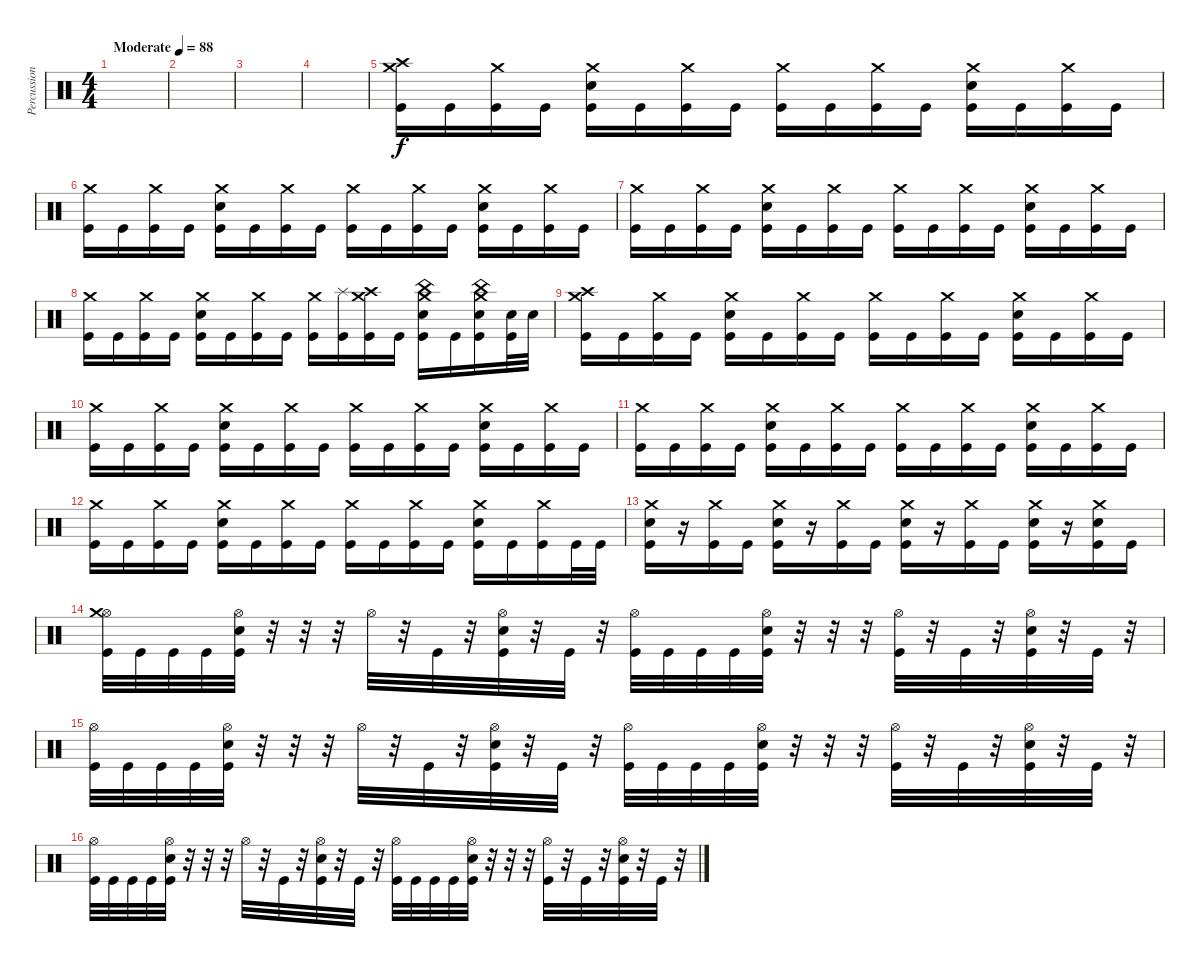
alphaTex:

\track ("Percussion" "Percussion") {instrument percussion}
\staff {score}
\articulation defaults
\ts (4 4)
\tempo (88 "Moderate")
\clef neutral
\ks c
|
|
|
|
("Crash medium (hit)" "Crash high (hit)" "Kick (hit)").16 "Kick (hit)".16 ("Crash medium (hit)" "Kick (hit)").16 "Kick (hit)".16 ("Crash medium (hit)" "Electric Snare (hit)" "Kick (hit)").16 "Kick (hit)".16 ("Crash medium (hit)" "Kick (hit)").16 "Kick (hit)".16 ("Crash medium (hit)" "Kick (hit)").16 "Kick (hit)".16 ("Crash medium (hit)" "Kick (hit)").16 "Kick (hit)".16 ("Crash medium (hit)" "Electric Snare (hit)" "Kick (hit)").16 "Kick (hit)".16 ("Crash medium (hit)" "Kick (hit)").16 "Kick (hit)".16 |
("Crash medium (hit)" "Kick (hit)").16 "Kick (hit)".16 ("Crash medium (hit)" "Kick (hit)").16 "Kick (hit)".16 ("Crash medium (hit)" "Electric Snare (hit)" "Kick (hit)").16 "Kick (hit)".16 ("Crash medium (hit)" "Kick (hit)").16 "Kick (hit)".16 ("Crash medium (hit)" "Kick (hit)").16 "Kick (hit)".16 ("Crash medium (hit)" "Kick (hit)").16 "Kick (hit)".16 ("Crash medium (hit)" "Electric Snare (hit)" "Kick (hit)").16 "Kick (hit)".16 ("Crash medium (hit)" "Kick (hit)").16 "Kick (hit)".16 |
("Crash medium (hit)" "Kick (hit)").16 "Kick (hit)".16 ("Crash medium (hit)" "Kick (hit)").16 "Kick (hit)".16 ("Crash medium (hit)" "Electric Snare (hit)" "Kick (hit)").16 "Kick (hit)".16 ("Crash medium (hit)" "Kick (hit)").16 "Kick (hit)".16 ("Crash medium (hit)" "Kick (hit)").16 "Kick (hit)".16 ("Crash medium (hit)" "Kick (hit)").16 "Kick (hit)".16 ("Crash medium (hit)" "Electric Snare (hit)" "Kick (hit)").16 "Kick (hit)".16 ("Crash medium (hit)" "Kick (hit)").16 "Kick (hit)".16 |
("Crash medium (hit)" "Kick (hit)").16 "Kick (hit)".16 ("Crash medium (hit)" "Kick (hit)").16 "Kick (hit)".16 ("Crash medium (hit)" "Electric Snare (hit)" "Kick (hit)").16 "Kick (hit)".16 ("Crash medium (hit)" "Kick (hit)").16 "Kick (hit)".16 ("Crash medium (hit)" "Kick (hit)").16 ("Splash (hit)" "Kick (hit)").16 ("Crash medium (hit)" "Crash high (hit)" "Kick (hit)").16 "Kick (hit)".16 ("Crash medium (hit)" "China (hit)" "Electric Snare (hit)" "Kick (hit)").16 "Kick (hit)".16 ("Crash medium (hit)" "China (hit)" "Electric Snare (hit)" "Kick (hit)").16 ("Electric Snare (hit)" "Kick (hit)").32 "Electric Snare (hit)".32 |
("Crash medium (hit)" "Crash high (hit)" "Kick (hit)").16 "Kick (hit)".16 ("Crash medium (hit)" "Kick (hit)").16 "Kick (hit)".16 ("Crash medium (hit)" "Electric Snare (hit)" "Kick (hit)").16 "Kick (hit)".16 ("Crash medium (hit)" "Kick (hit)").16 "Kick (hit)".16 ("Crash medium (hit)" "Kick (hit)").16 "Kick (hit)".16 ("Crash medium (hit)" "Kick (hit)").16 "Kick (hit)".16 ("Crash medium (hit)" "Electric Snare (hit)" "Kick (hit)").16 "Kick (hit)".16 ("Crash medium (hit)" "Kick (hit)").16 "Kick (hit)".16 |
("Crash medium (hit)" "Kick (hit)").16 "Kick (hit)".16 ("Crash medium (hit)" "Kick (hit)").16 "Kick (hit)".16 ("Crash medium (hit)" "Electric Snare (hit)" "Kick (hit)").16 "Kick (hit)".16 ("Crash medium (hit)" "Kick (hit)").16 "Kick (hit)".16 ("Crash medium (hit)" "Kick (hit)").16 "Kick (hit)".16 ("Crash medium (hit)" "Kick (hit)").16 "Kick (hit)".16 ("Crash medium (hit)" "Electric Snare (hit)" "Kick (hit)").16 "Kick (hit)".16 ("Crash medium (hit)" "Kick (hit)").16 "Kick (hit)".16 |
("Crash medium (hit)" "Kick (hit)").16 "Kick (hit)".16 ("Crash medium (hit)" "Kick (hit)").16 "Kick (hit)".16 ("Crash medium (hit)" "Electric Snare (hit)" "Kick (hit)").16 "Kick (hit)".16 ("Crash medium (hit)" "Kick (hit)").16 "Kick (hit)".16 ("Crash medium (hit)" "Kick (hit)").16 "Kick (hit)".16 ("Crash medium (hit)" "Kick (hit)").16 "Kick (hit)".16 ("Crash medium (hit)" "Electric Snare (hit)" "Kick (hit)").16 "Kick (hit)".16 ("Crash medium (hit)" "Kick (hit)").16 "Kick (hit)".16 |
("Crash medium (hit)" "Kick (hit)").16 "Kick (hit)".16 ("Crash medium (hit)" "Kick (hit)").16 "Kick (hit)".16 ("Crash medium (hit)" "Electric Snare (hit)" "Kick (hit)").16 "Kick (hit)".16 ("Crash medium (hit)" "Kick (hit)").16 "Kick (hit)".16 ("Crash medium (hit)" "Kick (hit)").16 "Kick (hit)".16 ("Crash medium (hit)" "Kick (hit)").16 "Kick (hit)".16 ("Crash medium (hit)" "Electric Snare (hit)" "Kick (hit)").16 "Kick (hit)".16 ("Crash medium (hit)" "Kick (hit)").16 "Kick (hit)".32 "Kick (hit)".32 |
("Crash medium (hit)" "Electric Snare (hit)" "Kick (hit)").16 r.16 ("Crash medium (hit)" "Kick (hit)").16 "Kick (hit)".16 ("Crash medium (hit)" "Electric Snare (hit)" "Kick (hit)").16 r.16 ("Crash medium (hit)" "Kick (hit)").16 "Kick (hit)".16 ("Crash medium (hit)" "Electric Snare (hit)" "Kick (hit)").16 r.16 ("Crash medium (hit)" "Kick (hit)").16 "Kick (hit)".16 ("Crash medium (hit)" "Electric Snare (hit)" "Kick (hit)").16 r.16 ("Crash medium (hit)" "Electric Snare (hit)" "Kick (hit)").16 "Kick (hit)".16 |
("Hi-Hat (open)" "Crash medium (hit)" "Kick (hit)").32 "Kick (hit)".32 "Kick (hit)".32 "Kick (hit)".32 ("Hi-Hat (open)" "Electric Snare (hit)" "Kick (hit)").32 r.32 r.32 r.32 "Hi-Hat (open)".32 r.32 "Kick (hit)".32 r.32 ("Hi-Hat (open)" "Electric Snare (hit)" "Kick (hit)").32 r.32 "Kick (hit)".32 r.32 ("Hi-Hat (open)" "Kick (hit)").32 "Kick (hit)".32 "Kick (hit)".32 "Kick (hit)".32 ("Hi-Hat (open)" "Electric Snare (hit)" "Kick (hit)").32 r.32 r.32 r.32 ("Hi-Hat (open)" "Kick (hit)").32 r.32 "Kick (hit)".32 r.32 ("Hi-Hat (open)" "Electric Snare (hit)" "Kick (hit)").32 r.32 "Kick (hit)".32 r.32 |
("Hi-Hat (open)" "Kick (hit)").32 "Kick (hit)".32 "Kick (hit)".32 "Kick (hit)".32 ("Hi-Hat (open)" "Electric Snare (hit)" "Kick (hit)").32 r.32 r.32 r.32 "Hi-Hat (open)".32 r.32 "Kick (hit)".32 r.32 ("Hi-Hat (open)" "Electric Snare (hit)" "Kick (hit)").32 r.32 "Kick (hit)".32 r.32 ("Hi-Hat (open)" "Kick (hit)").32 "Kick (hit)".32 "Kick (hit)".32 "Kick (hit)".32 ("Hi-Hat (open)" "Electric Snare (hit)" "Kick (hit)").32 r.32 r.32 r.32 ("Hi-Hat (open)" "Kick (hit)").32 r.32 "Kick (hit)".32 r.32 ("Hi-Hat (open)" "Electric Snare (hit)" "Kick (hit)").32 r.32 "Kick (hit)".32 r.32 |
("Hi-Hat (open)" "Kick (hit)").32 "Kick (hit)".32 "Kick (hit)".32 "Kick (hit)".32 ("Hi-Hat (open)" "Electric Snare (hit)" "Kick (hit)").32 r.32 r.32 r.32 "Hi-Hat (open)".32 r.32 "Kick (hit)".32 r.32 ("Hi-Hat (open)" "Electric Snare (hit)" "Kick (hit)").32 r.32 "Kick (hit)".32 r.32 ("Hi-Hat (open)" "Kick (hit)").32 "Kick (hit)".32 "Kick (hit)".32 "Kick (hit)".32 ("Hi-Hat (open)" "Electric Snare (hit)" "Kick (hit)").32 r.32 r.32 r.32 ("Hi-Hat (open)" "Kick (hit)").32 r.32 "Kick (hit)".32 r.32 ("Hi-Hat (open)" "Electric Snare (hit)" "Kick (hit)").32 r.32 "Kick (hit)".32 r.32
